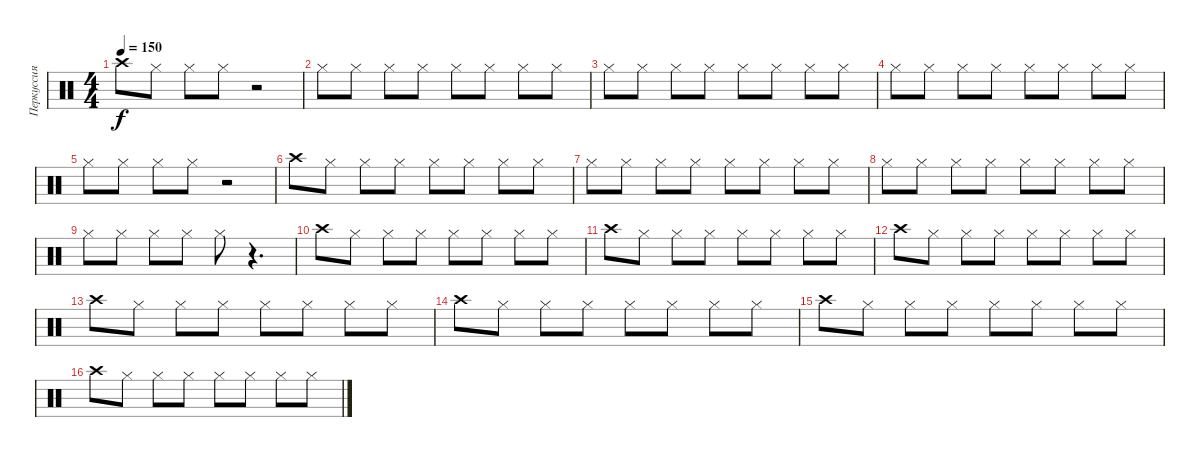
\track ("Перкуссия" "Перкуссия") {instrument percussion}
\staff {score}
\articulation defaults
\ts (4 4)
\tempo 150
\clef neutral
\ks c "Crash high (hit)".8{dy f beam Down} "Hi-Hat (closed)".8{beam Down} "Hi-Hat (closed)".8{beam Down} "Hi-Hat (closed)".8{beam Down}
r.2{beam Up} |
"Hi-Hat (closed)".8 "Hi-Hat (closed)".8 "Hi-Hat (closed)".8 "Hi-Hat (closed)".8 "Hi-Hat (closed)".8 "Hi-Hat (closed)".8 "Hi-Hat (closed)".8 "Hi-Hat (closed)".8 |
"Hi-Hat (closed)".8 "Hi-Hat (closed)".8 "Hi-Hat (closed)".8 "Hi-Hat (closed)".8 "Hi-Hat (closed)".8 "Hi-Hat (closed)".8 "Hi-Hat (closed)".8 "Hi-Hat (closed)".8 |
"Hi-Hat (closed)".8 "Hi-Hat (closed)".8 "Hi-Hat (closed)".8 "Hi-Hat (closed)".8 "Hi-Hat (closed)".8 "Hi-Hat (closed)".8 "Hi-Hat (closed)".8 "Hi-Hat (closed)".8 |
"Hi-Hat (closed)".8 "Hi-Hat (closed)".8 "Hi-Hat (closed)".8 "Hi-Hat (closed)".8 r.2 |
"Crash high (hit)".8 "Hi-Hat (closed)".8 "Hi-Hat (closed)".8 "Hi-Hat (closed)".8 "Hi-Hat (closed)".8 "Hi-Hat (closed)".8 "Hi-Hat (closed)".8 "Hi-Hat (closed)".8 |
"Hi-Hat (closed)".8 "Hi-Hat (closed)".8 "Hi-Hat (closed)".8 "Hi-Hat (closed)".8 "Hi-Hat (closed)".8 "Hi-Hat (closed)".8 "Hi-Hat (closed)".8 "Hi-Hat (closed)".8 |
"Hi-Hat (closed)".8 "Hi-Hat (closed)".8 "Hi-Hat (closed)".8 "Hi-Hat (closed)".8 "Hi-Hat (closed)".8 "Hi-Hat (closed)".8 "Hi-Hat (closed)".8 "Hi-Hat (closed)".8 |
"Hi-Hat (closed)".8 "Hi-Hat (closed)".8 "Hi-Hat (closed)".8 "Hi-Hat (closed)".8 "Hi-Hat (closed)".8 r.4{d} |
"Crash high (hit)".8{beam Down} "Hi-Hat (closed)".8{beam Down} "Hi-Hat (closed)".8{beam Down} "Hi-Hat (closed)".8{beam Down} "Hi-Hat (closed)".8{beam Down} "Hi-Hat (closed)".8{beam Down} "Hi-Hat (closed)".8{beam Down} "Hi-Hat (closed)".8{beam Down} |
"Crash high (hit)".8{beam Down} "Hi-Hat (closed)".8{beam Down} "Hi-Hat (closed)".8{beam Down} "Hi-Hat (closed)".8{beam Down} "Hi-Hat (closed)".8{beam Down} "Hi-Hat (closed)".8{beam Down} "Hi-Hat (closed)".8{beam Down} "Hi-Hat (closed)".8{beam Down} |
"Crash high (hit)".8{beam Down} "Hi-Hat (closed)".8{beam Down} "Hi-Hat (closed)".8{beam Down} "Hi-Hat (closed)".8{beam Down} "Hi-Hat (closed)".8{beam Down} "Hi-Hat (closed)".8{beam Down} "Hi-Hat (closed)".8{beam Down} "Hi-Hat (closed)".8{beam Down} |
"Crash high (hit)".8{beam Down} "Hi-Hat (closed)".8{beam Down} "Hi-Hat (closed)".8{beam Down} "Hi-Hat (closed)".8{beam Down} "Hi-Hat (closed)".8{beam Down} "Hi-Hat (closed)".8{beam Down} "Hi-Hat (closed)".8{beam Down} "Hi-Hat (closed)".8{beam Down} |
"Crash high (hit)".8{beam Down} "Hi-Hat (closed)".8{beam Down} "Hi-Hat (closed)".8{beam Down} "Hi-Hat (closed)".8{beam Down} "Hi-Hat (closed)".8{beam Down} "Hi-Hat (closed)".8{beam Down} "Hi-Hat (closed)".8{beam Down} "Hi-Hat (closed)".8{beam Down} |
"Crash high (hit)".8{beam Down} "Hi-Hat (closed)".8{beam Down} "Hi-Hat (closed)".8{beam Down} "Hi-Hat (closed)".8{beam Down} "Hi-Hat (closed)".8{beam Down} "Hi-Hat (closed)".8{beam Down} "Hi-Hat (closed)".8{beam Down} "Hi-Hat (closed)".8{beam Down} |
"Crash high (hit)".8{beam Down} "Hi-Hat (closed)".8{beam Down} "Hi-Hat (closed)".8{beam Down} "Hi-Hat (closed)".8{beam Down} "Hi-Hat (closed)".8{beam Down} "Hi-Hat (closed)".8{beam Down} "Hi-Hat (closed)".8{beam Down} "Hi-Hat (closed)".8{beam Down}
